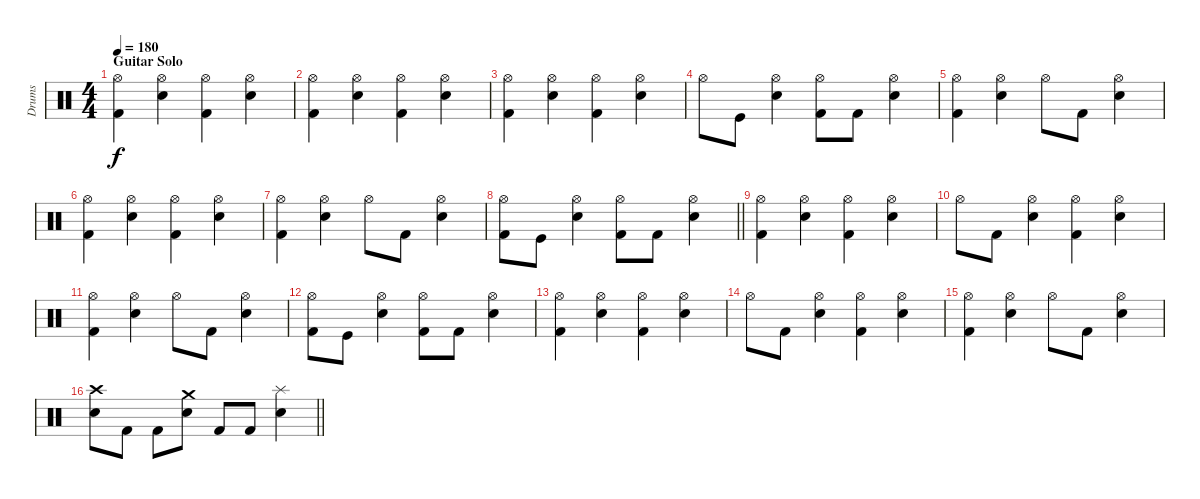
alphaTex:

\track ("Drums" "Drums") {instrument percussion}
\staff {score}
\articulation defaults
\ts (4 4)
\section ("" "Guitar Solo")
\tempo 180
\clef neutral
\ks c
("Hi-Hat (open)" "Kick (hit) 2").4{dy f} ("Hi-Hat (open)" "Electric Snare (hit)").4 ("Hi-Hat (open)" "Kick (hit) 2").4 ("Hi-Hat (open)" "Electric Snare (hit)").4 |
("Hi-Hat (open)" "Kick (hit) 2").4 ("Hi-Hat (open)" "Electric Snare (hit)").4 ("Hi-Hat (open)" "Kick (hit) 2").4 ("Hi-Hat (open)" "Electric Snare (hit)").4 |
("Hi-Hat (open)" "Kick (hit) 2").4 ("Hi-Hat (open)" "Electric Snare (hit)").4 ("Hi-Hat (open)" "Kick (hit) 2").4 ("Hi-Hat (open)" "Electric Snare (hit)").4 |
"Hi-Hat (open)".8 "Kick (hit)".8 ("Hi-Hat (open)" "Electric Snare (hit)").4 ("Hi-Hat (open)" "Kick (hit) 2").8 "Kick (hit) 2".8 ("Hi-Hat (open)" "Electric Snare (hit)").4 |
("Hi-Hat (open)" "Kick (hit) 2").4 ("Hi-Hat (open)" "Electric Snare (hit)").4 "Hi-Hat (open)".8 "Kick (hit) 2".8 ("Hi-Hat (open)" "Electric Snare (hit)").4 |
("Hi-Hat (open)" "Kick (hit) 2").4 ("Hi-Hat (open)" "Electric Snare (hit)").4 ("Hi-Hat (open)" "Kick (hit) 2").4 ("Hi-Hat (open)" "Electric Snare (hit)").4 |
("Hi-Hat (open)" "Kick (hit) 2").4 ("Hi-Hat (open)" "Electric Snare (hit)").4 "Hi-Hat (open)".8 "Kick (hit) 2".8 ("Hi-Hat (open)" "Electric Snare (hit)").4 |
\barLineRight lightlight
("Hi-Hat (open)" "Kick (hit) 2").8 "Kick (hit)".8 ("Hi-Hat (open)" "Electric Snare (hit)").4 ("Hi-Hat (open)" "Kick (hit) 2").8 "Kick (hit) 2".8 ("Hi-Hat (open)" "Electric Snare (hit)").4 |
("Hi-Hat (open)" "Kick (hit) 2").4 ("Hi-Hat (open)" "Electric Snare (hit)").4 ("Hi-Hat (open)" "Kick (hit) 2").4 ("Hi-Hat (open)" "Electric Snare (hit)").4 |
"Hi-Hat (open)".8 "Kick (hit) 2".8 ("Hi-Hat (open)" "Electric Snare (hit)").4 ("Hi-Hat (open)" "Kick (hit) 2").4 ("Hi-Hat (open)" "Electric Snare (hit)").4 |
("Hi-Hat (open)" "Kick (hit) 2").4 ("Hi-Hat (open)" "Electric Snare (hit)").4 "Hi-Hat (open)".8 "Kick (hit) 2".8 ("Hi-Hat (open)" "Electric Snare (hit)").4 |
("Hi-Hat (open)" "Kick (hit) 2").8 "Kick (hit)".8 ("Hi-Hat (open)" "Electric Snare (hit)").4 ("Hi-Hat (open)" "Kick (hit) 2").8 "Kick (hit) 2".8 ("Hi-Hat (open)" "Electric Snare (hit)").4 |
("Hi-Hat (open)" "Kick (hit) 2").4 ("Hi-Hat (open)" "Electric Snare (hit)").4 ("Hi-Hat (open)" "Kick (hit) 2").4 ("Hi-Hat (open)" "Electric Snare (hit)").4 |
"Hi-Hat (open)".8 "Kick (hit) 2".8 ("Hi-Hat (open)" "Electric Snare (hit)").4 ("Hi-Hat (open)" "Kick (hit) 2").4 ("Hi-Hat (open)" "Electric Snare (hit)").4 |
("Hi-Hat (open)" "Kick (hit) 2").4 ("Hi-Hat (open)" "Electric Snare (hit)").4 "Hi-Hat (open)".8 "Kick (hit) 2".8 ("Hi-Hat (open)" "Electric Snare (hit)").4 |
\barLineRight lightlight
("Crash high (hit)" "Electric Snare (hit)").8 "Kick (hit) 2".8 "Kick (hit) 2".8 ("Crash medium (hit)" "Electric Snare (hit)").8 "Kick (hit) 2".8 "Kick (hit) 2".8 ("Splash (hit)" "Electric Snare (hit)").4
